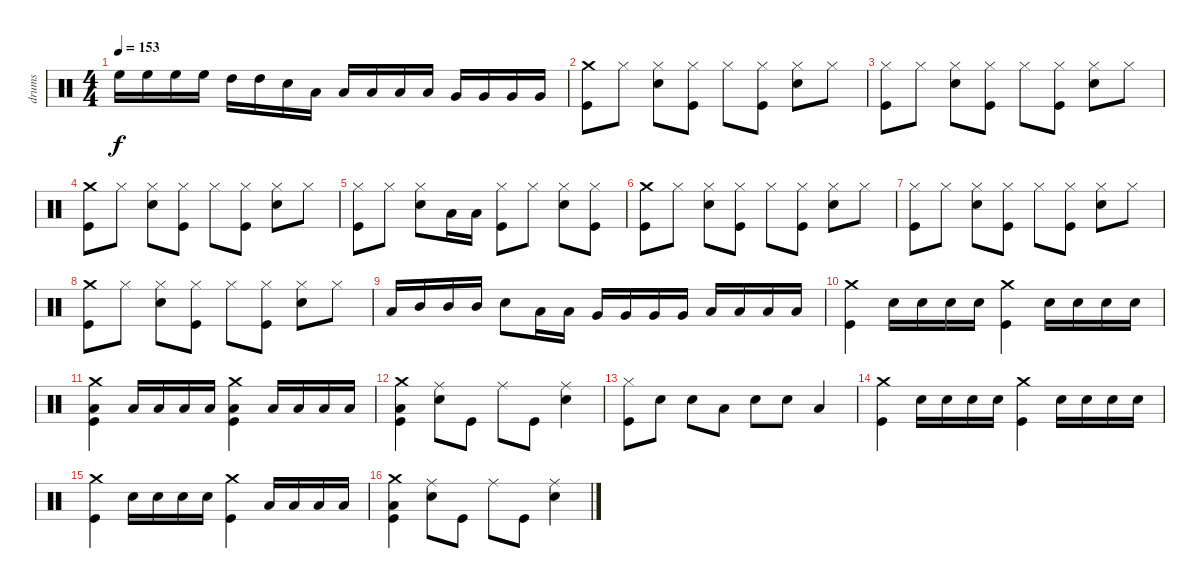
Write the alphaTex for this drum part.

\track ("drums" "drums") {instrument percussion}
\staff {score}
\articulation defaults
\ts (4 4)
\tempo 153
\clef neutral
\ks c "High Floor Tom (hit)".16{dy f} "High Floor Tom (hit)".16 "High Floor Tom (hit)".16 "High Floor Tom (hit)".16 "High Tom (hit)".16 "High Tom (hit)".16 "Snare (hit) 2".16 "Low Tom (hit)".16 "Low Tom (hit)".16 "Low Tom (hit)".16 "Low Tom (hit)".16 "Low Tom (hit)".16 "Very Low Tom (hit)".16 "Very Low Tom (hit)".16 "Very Low Tom (hit)".16 "Very Low Tom (hit)".16
|
("Kick (hit)" "Crash medium (hit)").8 "Hi-Hat (closed)".8 ("Snare (hit) 2" "Hi-Hat (closed)").8 ("Kick (hit)" "Hi-Hat (closed)").8 "Hi-Hat (closed)".8 ("Kick (hit)" "Hi-Hat (closed)").8 ("Snare (hit) 2" "Hi-Hat (closed)").8 "Hi-Hat (closed)".8 |
("Kick (hit)" "Hi-Hat (closed)").8 "Hi-Hat (closed)".8 ("Snare (hit) 2" "Hi-Hat (closed)").8 ("Kick (hit)" "Hi-Hat (closed)").8 "Hi-Hat (closed)".8 ("Kick (hit)" "Hi-Hat (closed)").8 ("Snare (hit) 2" "Hi-Hat (closed)").8 "Hi-Hat (closed)".8 |
("Kick (hit)" "Crash medium (hit)").8 "Hi-Hat (closed)".8 ("Snare (hit) 2" "Hi-Hat (closed)").8 ("Kick (hit)" "Hi-Hat (closed)").8 "Hi-Hat (closed)".8 ("Kick (hit)" "Hi-Hat (closed)").8 ("Snare (hit) 2" "Hi-Hat (closed)").8 "Hi-Hat (closed)".8 |
("Hi-Hat (closed)" "Kick (hit)").8 "Hi-Hat (closed)".8 ("Hi-Hat (closed)" "Snare (hit) 2").8 "Low Tom (hit)".16 "Low Tom (hit)".16 ("Hi-Hat (closed)" "Kick (hit)").8 "Hi-Hat (closed)".8 ("Hi-Hat (closed)" "Snare (hit) 2").8 ("Kick (hit)" "Hi-Hat (closed)").8 |
("Kick (hit)" "Crash medium (hit)").8 "Hi-Hat (closed)".8 ("Snare (hit) 2" "Hi-Hat (closed)").8 ("Kick (hit)" "Hi-Hat (closed)").8 "Hi-Hat (closed)".8 ("Kick (hit)" "Hi-Hat (closed)").8 ("Snare (hit) 2" "Hi-Hat (closed)").8 "Hi-Hat (closed)".8 |
("Kick (hit)" "Hi-Hat (closed)").8 "Hi-Hat (closed)".8 ("Snare (hit) 2" "Hi-Hat (closed)").8 ("Kick (hit)" "Hi-Hat (closed)").8 "Hi-Hat (closed)".8 ("Kick (hit)" "Hi-Hat (closed)").8 ("Snare (hit) 2" "Hi-Hat (closed)").8 "Hi-Hat (closed)".8 |
("Kick (hit)" "Crash medium (hit)").8 "Hi-Hat (closed)".8 ("Snare (hit) 2" "Hi-Hat (closed)").8 ("Kick (hit)" "Hi-Hat (closed)").8 "Hi-Hat (closed)".8 ("Kick (hit)" "Hi-Hat (closed)").8 ("Snare (hit) 2" "Hi-Hat (closed)").8 "Hi-Hat (closed)".8 |
"Low Tom (hit)".16 "Mid Tom (hit)".16 "Mid Tom (hit)".16 "Mid Tom (hit)".16 "Snare (hit) 2".8 "Low Tom (hit)".16 "Low Tom (hit)".16 "Very Low Tom (hit)".16 "Very Low Tom (hit)".16 "Very Low Tom (hit)".16 "Very Low Tom (hit)".16 "Low Floor Tom (hit)".16 "Low Floor Tom (hit)".16 "Low Floor Tom (hit)".16 "Low Floor Tom (hit)".16 |
("Kick (hit)" "Crash medium (hit)").4 "Snare (hit) 2".16 "Snare (hit) 2".16 "Snare (hit) 2".16 "Snare (hit) 2".16 ("Kick (hit)" "Crash medium (hit)").4 "Snare (hit) 2".16 "Snare (hit) 2".16 "Snare (hit) 2".16 "Snare (hit) 2".16 |
("Kick (hit)" "Crash medium (hit)" "Low Tom (hit)").4 "Low Tom (hit)".16 "Low Tom (hit)".16 "Low Tom (hit)".16 "Low Tom (hit)".16 ("Kick (hit)" "Crash medium (hit)" "Low Tom (hit)").4 "Low Floor Tom (hit)".16 "Low Floor Tom (hit)".16 "Low Floor Tom (hit)".16 "Low Floor Tom (hit)".16 |
("Low Tom (hit)" "Kick (hit)" "Crash medium (hit)").4 ("Ride (middle)" "Snare (hit) 2").8 "Kick (hit)".8 "Ride (middle)".8 "Kick (hit)".8 ("Ride (middle)" "Snare (hit) 2").4 |
("Hi-Hat (closed)" "Kick (hit)").8 "Snare (hit) 2".8 "Snare (hit) 2".8 "Low Tom (hit)".8 "Snare (hit) 2".8 "Snare (hit) 2".8 "Low Tom (hit)".4 |
("Kick (hit)" "Crash medium (hit)").4 "Snare (hit) 2".16 "Snare (hit) 2".16 "Snare (hit) 2".16 "Snare (hit) 2".16 ("Kick (hit)" "Crash medium (hit)").4 "Snare (hit) 2".16 "Snare (hit) 2".16 "Snare (hit) 2".16 "Snare (hit) 2".16 |
("Kick (hit)" "Crash medium (hit)").4 "Snare (hit) 2".16 "Snare (hit) 2".16 "Snare (hit) 2".16 "Snare (hit) 2".16 ("Kick (hit)" "Crash medium (hit)").4 "Low Floor Tom (hit)".16 "Low Floor Tom (hit)".16 "Low Floor Tom (hit)".16 "Low Floor Tom (hit)".16 |
("Low Tom (hit)" "Kick (hit)" "Crash medium (hit)").4 ("Ride (middle)" "Snare (hit) 2").8 "Kick (hit)".8 "Ride (middle)".8 "Kick (hit)".8 ("Ride (middle)" "Snare (hit) 2").4
